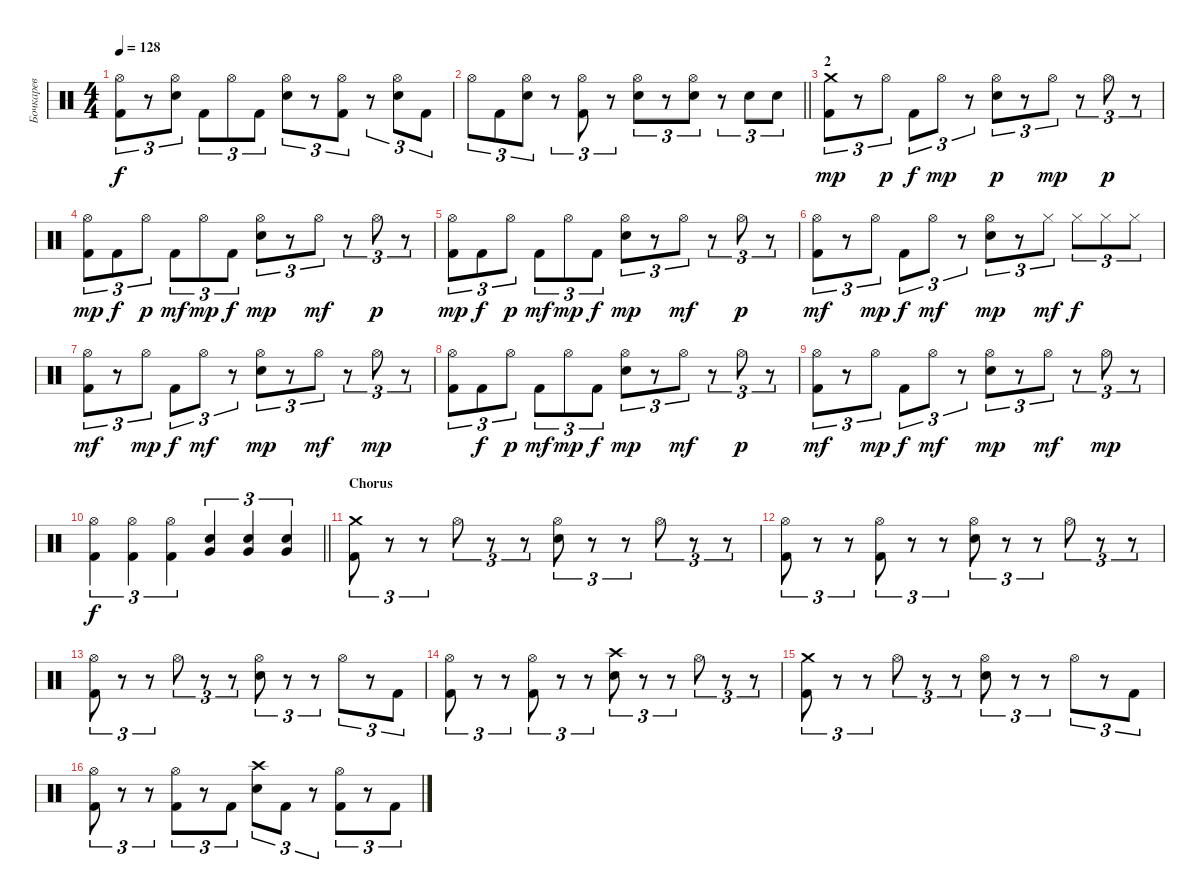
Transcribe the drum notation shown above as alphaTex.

\track ("Бочкарев" "Бочкарев") {instrument percussion}
\staff
\articulation defaults
\ts (4 4)
\tempo 128
\clef neutral
\ks c
("Hi-Hat (open)" "Kick (hit) 2").8{tu (3 2) dy f} r.8{tu (3 2)} ("Hi-Hat (open)" "Electric Snare (hit)").8{tu (3 2)} "Kick (hit) 2".8{tu (3 2)} "Hi-Hat (open)".8{tu (3 2)} "Kick (hit) 2".8{tu (3 2)} ("Hi-Hat (open)" "Electric Snare (hit)").8{tu (3 2)} r.8{tu (3 2)} ("Hi-Hat (open)" "Kick (hit) 2").8{tu (3 2)} r.8{tu (3 2)} ("Hi-Hat (open)" "Electric Snare (hit)").8{tu (3 2)} "Kick (hit) 2".8{tu (3 2)} |
\barLineRight lightlight "Hi-Hat (open)".8{tu (3 2)} "Kick (hit) 2".8{tu (3 2)}
("Hi-Hat (open)" "Electric Snare (hit)").8{tu (3 2)} r.8{tu (3 2)} ("Hi-Hat (open)" "Kick (hit) 2").8{tu (3 2)} r.8{tu (3 2)} ("Hi-Hat (open)" "Electric Snare (hit)").8{tu (3 2)} r.8{tu (3 2)} ("Hi-Hat (open)" "Electric Snare (hit)").8{tu (3 2)} r.8{tu (3 2)} "Electric Snare (hit)".8{tu (3 2)} "Electric Snare (hit)".8{tu (3 2)} |
\section ("" "2")
("Crash medium (hit)" "Kick (hit) 2").8{tu (3 2) dy mp} r.8{tu (3 2)} "Hi-Hat (open)".8{tu (3 2) dy p} "Kick (hit) 2".8{tu (3 2) dy f} "Hi-Hat (open)".8{tu (3 2) dy mp} r.8{tu (3 2)} ("Hi-Hat (open)" "Electric Snare (hit)").8{tu (3 2) dy p} r.8{tu (3 2)} "Hi-Hat (open)".8{tu (3 2) dy mp} r.8{tu (3 2)} "Hi-Hat (open)".8{tu (3 2) dy p} r.8{tu (3 2)} |
("Hi-Hat (open)" "Kick (hit) 2").8{tu (3 2) dy mp} "Kick (hit) 2".8{tu (3 2) dy f} "Hi-Hat (open)".8{tu (3 2) dy p} "Kick (hit) 2".8{tu (3 2) dy mf} "Hi-Hat (open)".8{tu (3 2) dy mp} "Kick (hit) 2".8{tu (3 2) dy f} ("Hi-Hat (open)" "Electric Snare (hit)").8{tu (3 2) dy mp} r.8{tu (3 2)} "Hi-Hat (open)".8{tu (3 2) dy mf} r.8{tu (3 2)} "Hi-Hat (open)".8{tu (3 2) dy p} r.8{tu (3 2)} |
("Hi-Hat (open)" "Kick (hit) 2").8{tu (3 2) dy mp} "Kick (hit) 2".8{tu (3 2) dy f} "Hi-Hat (open)".8{tu (3 2) dy p} "Kick (hit) 2".8{tu (3 2) dy mf} "Hi-Hat (open)".8{tu (3 2) dy mp} "Kick (hit) 2".8{tu (3 2) dy f} ("Hi-Hat (open)" "Electric Snare (hit)").8{tu (3 2) dy mp} r.8{tu (3 2)} "Hi-Hat (open)".8{tu (3 2) dy mf} r.8{tu (3 2)} "Hi-Hat (open)".8{tu (3 2) dy p} r.8{tu (3 2)} |
("Hi-Hat (open)" "Kick (hit) 2").8{tu (3 2) dy mf} r.8{tu (3 2)} "Hi-Hat (open)".8{tu (3 2) dy mp} "Kick (hit) 2".8{tu (3 2) dy f} "Hi-Hat (open)".8{tu (3 2) dy mf} r.8{tu (3 2)} ("Hi-Hat (open)" "Electric Snare (hit)").8{tu (3 2) dy mp} r.8{tu (3 2)} "Hi-Hat (closed)".8{tu (3 2) dy mf} "Hi-Hat (closed)".8{tu (3 2) dy f} "Hi-Hat (closed)".8{tu (3 2)} "Hi-Hat (closed)".8{tu (3 2)} |
("Hi-Hat (open)" "Kick (hit) 2").8{tu (3 2) dy mf} r.8{tu (3 2)} "Hi-Hat (open)".8{tu (3 2) dy mp} "Kick (hit) 2".8{tu (3 2) dy f} "Hi-Hat (open)".8{tu (3 2) dy mf} r.8{tu (3 2)} ("Hi-Hat (open)" "Electric Snare (hit)").8{tu (3 2) dy mp} r.8{tu (3 2)} "Hi-Hat (open)".8{tu (3 2) dy mf} r.8{tu (3 2)} "Hi-Hat (open)".8{tu (3 2) dy mp} r.8{tu (3 2)} |
("Hi-Hat (open)" "Kick (hit) 2").8{tu (3 2)} "Kick (hit) 2".8{tu (3 2) dy f} "Hi-Hat (open)".8{tu (3 2) dy p} "Kick (hit) 2".8{tu (3 2) dy mf} "Hi-Hat (open)".8{tu (3 2) dy mp} "Kick (hit) 2".8{tu (3 2) dy f} ("Hi-Hat (open)" "Electric Snare (hit)").8{tu (3 2) dy mp} r.8{tu (3 2)} "Hi-Hat (open)".8{tu (3 2) dy mf} r.8{tu (3 2)} "Hi-Hat (open)".8{tu (3 2) dy p} r.8{tu (3 2)} |
("Hi-Hat (open)" "Kick (hit) 2").8{tu (3 2) dy mf} r.8{tu (3 2)} "Hi-Hat (open)".8{tu (3 2) dy mp} "Kick (hit) 2".8{tu (3 2) dy f} "Hi-Hat (open)".8{tu (3 2) dy mf} r.8{tu (3 2)} ("Hi-Hat (open)" "Electric Snare (hit)").8{tu (3 2) dy mp} r.8{tu (3 2)} "Hi-Hat (open)".8{tu (3 2) dy mf} r.8{tu (3 2)} "Hi-Hat (open)".8{tu (3 2) dy mp} r.8{tu (3 2)} |
\barLineRight lightlight
("Hi-Hat (open)" "Kick (hit) 2").4{tu (3 2) dy f} ("Hi-Hat (open)" "Kick (hit) 2").4{tu (3 2)} ("Hi-Hat (open)" "Kick (hit) 2").4{tu (3 2)} ("Very Low Tom (hit)" "Electric Snare (hit)").4{tu (3 2)} ("Very Low Tom (hit)" "Electric Snare (hit)").4{tu (3 2)} ("Very Low Tom (hit)" "Electric Snare (hit)").4{tu (3 2)} |
\section ("" "Chorus")
("Crash medium (hit)" "Kick (hit) 2").8{tu (3 2)} r.8{tu (3 2)} r.8{tu (3 2)} "Hi-Hat (open)".8{tu (3 2)} r.8{tu (3 2)} r.8{tu (3 2)} ("Hi-Hat (open)" "Electric Snare (hit)").8{tu (3 2)} r.8{tu (3 2)} r.8{tu (3 2)} "Hi-Hat (open)".8{tu (3 2)} r.8{tu (3 2)} r.8{tu (3 2)} |
("Hi-Hat (open)" "Kick (hit) 2").8{tu (3 2)} r.8{tu (3 2)} r.8{tu (3 2)} ("Hi-Hat (open)" "Kick (hit) 2").8{tu (3 2)} r.8{tu (3 2)} r.8{tu (3 2)} ("Hi-Hat (open)" "Electric Snare (hit)").8{tu (3 2)} r.8{tu (3 2)} r.8{tu (3 2)} "Hi-Hat (open)".8{tu (3 2)} r.8{tu (3 2)} r.8{tu (3 2)} |
("Hi-Hat (open)" "Kick (hit) 2").8{tu (3 2)} r.8{tu (3 2)} r.8{tu (3 2)} "Hi-Hat (open)".8{tu (3 2)} r.8{tu (3 2)} r.8{tu (3 2)} ("Hi-Hat (open)" "Electric Snare (hit)").8{tu (3 2)} r.8{tu (3 2)} r.8{tu (3 2)} "Hi-Hat (open)".8{tu (3 2)} r.8{tu (3 2)} "Kick (hit) 2".8{tu (3 2)} |
("Hi-Hat (open)" "Kick (hit) 2").8{tu (3 2)} r.8{tu (3 2)} r.8{tu (3 2)} ("Hi-Hat (open)" "Kick (hit) 2").8{tu (3 2)} r.8{tu (3 2)} r.8{tu (3 2)} ("Crash high (hit)" "Electric Snare (hit)").8{tu (3 2)} r.8{tu (3 2)} r.8{tu (3 2)} "Hi-Hat (open)".8{tu (3 2)} r.8{tu (3 2)} r.8{tu (3 2)} |
("Crash medium (hit)" "Kick (hit) 2").8{tu (3 2)} r.8{tu (3 2)} r.8{tu (3 2)} "Hi-Hat (open)".8{tu (3 2)} r.8{tu (3 2)} r.8{tu (3 2)} ("Hi-Hat (open)" "Electric Snare (hit)").8{tu (3 2)} r.8{tu (3 2)} r.8{tu (3 2)} "Hi-Hat (open)".8{tu (3 2)} r.8{tu (3 2)} "Kick (hit) 2".8{tu (3 2)} |
("Hi-Hat (open)" "Kick (hit) 2").8{tu (3 2)} r.8{tu (3 2)} r.8{tu (3 2)} ("Hi-Hat (open)" "Kick (hit) 2").8{tu (3 2)} r.8{tu (3 2)} "Kick (hit) 2".8{tu (3 2)} ("Crash high (hit)" "Electric Snare (hit)").8{tu (3 2)} "Kick (hit) 2".8{tu (3 2)} r.8{tu (3 2)} ("Hi-Hat (open)" "Kick (hit) 2").8{tu (3 2)} r.8{tu (3 2)} "Kick (hit) 2".8{tu (3 2)}
